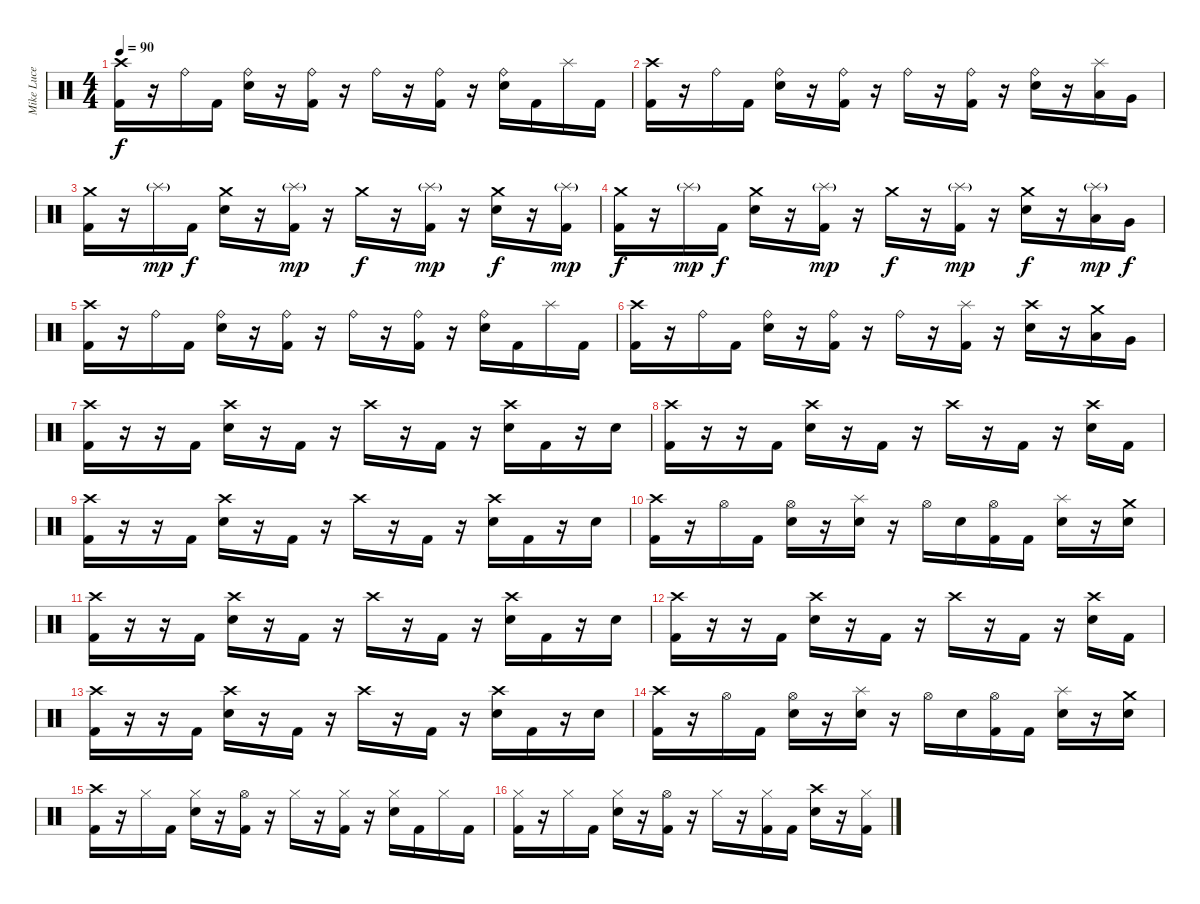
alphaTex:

\track ("Mike Luce" "Mike Luce") {instrument percussion}
\staff {score}
\articulation defaults
\ts (4 4)
\tempo 90
\clef neutral
\ks c
("Crash high (hit)" "Kick (hit) 2").16{dy f} r.16 "Ride (bell)".16 "Kick (hit) 2".16 ("Ride (bell)" "Electric Snare (hit)").16 r.16 ("Ride (bell)" "Kick (hit) 2").16 r.16 "Ride (bell)".16 r.16 ("Ride (bell)" "Kick (hit) 2").16 r.16 ("Ride (bell)" "Electric Snare (hit)").16 "Kick (hit) 2".16 "Splash (hit)".16 "Kick (hit) 2".16 |
("Crash high (hit)" "Kick (hit) 2").16 r.16 "Ride (bell)".16 "Kick (hit) 2".16 ("Ride (bell)" "Electric Snare (hit)").16 r.16 ("Ride (bell)" "Kick (hit) 2").16 r.16 "Ride (bell)".16 r.16 ("Ride (bell)" "Kick (hit) 2").16 r.16 ("Ride (bell)" "Electric Snare (hit)").16 r.16 ("Splash (hit)" "Low Tom (hit)").16 "Very Low Tom (hit)".16 |
("Crash medium (hit)" "Kick (hit) 2").16 r.16 "Splash (hit)"{g}.16{dy mp} "Kick (hit) 2".16{dy f} ("Crash medium (hit)" "Electric Snare (hit)").16 r.16 ("Splash (hit)"{g} "Kick (hit) 2").16{dy mp} r.16 "Crash medium (hit)".16{dy f} r.16 ("Splash (hit)"{g} "Kick (hit) 2").16{dy mp} r.16 ("Crash medium (hit)" "Electric Snare (hit)").16{dy f} r.16 ("Splash (hit)"{g} "Kick (hit) 2").16{dy mp} |
("Crash medium (hit)" "Kick (hit) 2").16{dy f} r.16 "Splash (hit)"{g}.16{dy mp} "Kick (hit) 2".16{dy f} ("Crash medium (hit)" "Electric Snare (hit)").16 r.16 ("Splash (hit)"{g} "Kick (hit) 2").16{dy mp} r.16 "Crash medium (hit)".16{dy f} r.16 ("Splash (hit)"{g} "Kick (hit) 2").16{dy mp} r.16 ("Crash medium (hit)" "Electric Snare (hit)").16{dy f} r.16 ("Splash (hit)"{g} "Low Tom (hit)").16{dy mp} "Very Low Tom (hit)".16{dy f} |
("Crash high (hit)" "Kick (hit) 2").16 r.16 "Ride (bell)".16 "Kick (hit) 2".16 ("Ride (bell)" "Electric Snare (hit)").16 r.16 ("Ride (bell)" "Kick (hit) 2").16 r.16 "Ride (bell)".16 r.16 ("Ride (bell)" "Kick (hit) 2").16 r.16 ("Ride (bell)" "Electric Snare (hit)").16 "Kick (hit) 2".16 "Splash (hit)".16 "Kick (hit) 2".16 |
("Crash high (hit)" "Kick (hit) 2").16 r.16 "Ride (bell)".16 "Kick (hit) 2".16 ("Ride (bell)" "Electric Snare (hit)").16 r.16 ("Ride (bell)" "Kick (hit) 2").16 r.16 "Ride (bell)".16 r.16 ("Splash (hit)" "Kick (hit) 2").16 r.16 ("Crash high (hit)" "Electric Snare (hit)").16 r.16 ("Crash medium (hit)" "Low Tom (hit)").16 "Very Low Tom (hit)".16 |
("Crash high (hit)" "Kick (hit) 2").16 r.16 r.16 "Kick (hit) 2".16 ("Crash high (hit)" "Electric Snare (hit)").16 r.16 "Kick (hit) 2".16 r.16 "Crash high (hit)".16 r.16 "Kick (hit) 2".16 r.16 ("Crash high (hit)" "Electric Snare (hit)").16 "Kick (hit) 2".16 r.16 "Electric Snare (hit)".16 |
("Crash high (hit)" "Kick (hit) 2").16 r.16 r.16 "Kick (hit) 2".16 ("Crash high (hit)" "Electric Snare (hit)").16 r.16 "Kick (hit) 2".16 r.16 "Crash high (hit)".16 r.16 "Kick (hit) 2".16 r.16 ("Crash high (hit)" "Electric Snare (hit)").16 "Kick (hit) 2".16 |
("Crash high (hit)" "Kick (hit) 2").16 r.16 r.16 "Kick (hit) 2".16 ("Crash high (hit)" "Electric Snare (hit)").16 r.16 "Kick (hit) 2".16 r.16 "Crash high (hit)".16 r.16 "Kick (hit) 2".16 r.16 ("Crash high (hit)" "Electric Snare (hit)").16 "Kick (hit) 2".16 r.16 "Electric Snare (hit)".16 |
("Crash high (hit)" "Kick (hit) 2").16 r.16 "Hi-Hat (open)".16 "Kick (hit) 2".16 ("Hi-Hat (open)" "Electric Snare (hit)").16 r.16 ("Splash (hit)" "Electric Snare (hit)").16 r.16 "Hi-Hat (open)".16 "Electric Snare (hit)".16 ("Hi-Hat (open)" "Kick (hit) 2").16 "Kick (hit) 2".16 ("Splash (hit)" "Electric Snare (hit)").16 r.16 ("Crash medium (hit)" "Electric Snare (hit)").16 |
("Crash high (hit)" "Kick (hit) 2").16 r.16 r.16 "Kick (hit) 2".16 ("Crash high (hit)" "Electric Snare (hit)").16 r.16 "Kick (hit) 2".16 r.16 "Crash high (hit)".16 r.16 "Kick (hit) 2".16 r.16 ("Crash high (hit)" "Electric Snare (hit)").16 "Kick (hit) 2".16 r.16 "Electric Snare (hit)".16 |
("Crash high (hit)" "Kick (hit) 2").16 r.16 r.16 "Kick (hit) 2".16 ("Crash high (hit)" "Electric Snare (hit)").16 r.16 "Kick (hit) 2".16 r.16 "Crash high (hit)".16 r.16 "Kick (hit) 2".16 r.16 ("Crash high (hit)" "Electric Snare (hit)").16 "Kick (hit) 2".16 |
("Crash high (hit)" "Kick (hit) 2").16 r.16 r.16 "Kick (hit) 2".16 ("Crash high (hit)" "Electric Snare (hit)").16 r.16 "Kick (hit) 2".16 r.16 "Crash high (hit)".16 r.16 "Kick (hit) 2".16 r.16 ("Crash high (hit)" "Electric Snare (hit)").16 "Kick (hit) 2".16 r.16 "Electric Snare (hit)".16 |
("Crash high (hit)" "Kick (hit) 2").16 r.16 "Hi-Hat (open)".16 "Kick (hit) 2".16 ("Hi-Hat (open)" "Electric Snare (hit)").16 r.16 ("Splash (hit)" "Electric Snare (hit)").16 r.16 "Hi-Hat (open)".16 "Electric Snare (hit)".16 ("Hi-Hat (open)" "Kick (hit) 2").16 "Kick (hit) 2".16 ("Splash (hit)" "Electric Snare (hit)").16 r.16 ("Crash medium (hit)" "Electric Snare (hit)").16 |
("Crash high (hit)" "Kick (hit) 2").16 r.16 "Hi-Hat (closed)".16 "Kick (hit) 2".16 ("Hi-Hat (closed)" "Electric Snare (hit)").16 r.16 ("Hi-Hat (open)" "Kick (hit) 2").16 r.16 "Hi-Hat (closed)".16 r.16 ("Hi-Hat (closed)" "Kick (hit) 2").16 r.16 ("Hi-Hat (closed)" "Electric Snare (hit)").16 "Kick (hit) 2".16 "Hi-Hat (closed)".16 "Kick (hit) 2".16 |
("Hi-Hat (closed)" "Kick (hit) 2").16 r.16 "Hi-Hat (closed)".16 "Kick (hit) 2".16 ("Hi-Hat (closed)" "Electric Snare (hit)").16 r.16 ("Hi-Hat (open)" "Kick (hit) 2").16 r.16 "Hi-Hat (closed)".16 r.16 ("Hi-Hat (closed)" "Kick (hit) 2").16 "Kick (hit) 2".16 ("Crash high (hit)" "Electric Snare (hit)").16 r.16 ("Hi-Hat (closed)" "Kick (hit) 2").16
